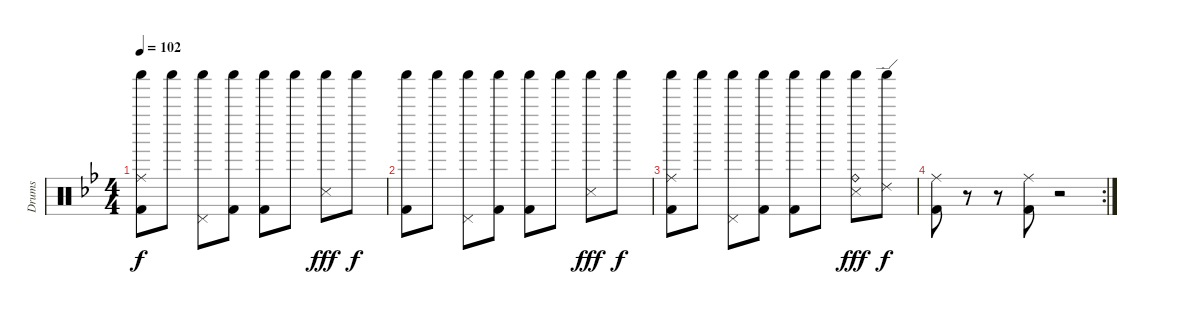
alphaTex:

\track ("Drums" "Drums") {instrument percussion}
\staff {score}
\articulation defaults
\ts (4 4)
\tempo 102
\clef neutral
\ks bb
("Shaker (hit)" "Ride (middle)" "Kick (hit) 2").8{dy f} "Shaker (hit)".8 ("Shaker (hit)" "Pedal Hi-Hat (hit)").8 ("Shaker (hit)" "Kick (hit) 2").8 ("Shaker (hit)" "Kick (hit) 2").8 "Shaker (hit)".8 ("Shaker (hit)" "Snare (side stick) 3").8{dy fff} "Shaker (hit)".8{dy f} |
("Shaker (hit)" "Kick (hit) 2").8 "Shaker (hit)".8 ("Shaker (hit)" "Pedal Hi-Hat (hit)").8 ("Shaker (hit)" "Kick (hit) 2").8 ("Shaker (hit)" "Kick (hit) 2").8 "Shaker (hit)".8 ("Shaker (hit)" "Snare (side stick) 3").8{dy fff} "Shaker (hit)".8{dy f} |
("Shaker (hit)" "Ride (middle)" "Kick (hit) 2").8 "Shaker (hit)".8 ("Shaker (hit)" "Pedal Hi-Hat (hit)").8 ("Shaker (hit)" "Kick (hit) 2").8 ("Shaker (hit)" "Kick (hit) 2").8 "Shaker (hit)".8 ("Shaker (hit)" "Ride (bell)" "Snare (side stick) 3").8{dy fff} ("Shaker (hit)" "Ride (edge) 2").8{dy f} |
\rc 2
("Ride (middle)" "Kick (hit) 2").8 r.8 r.8 ("Ride (middle)" "Kick (hit) 2").8 r.2
